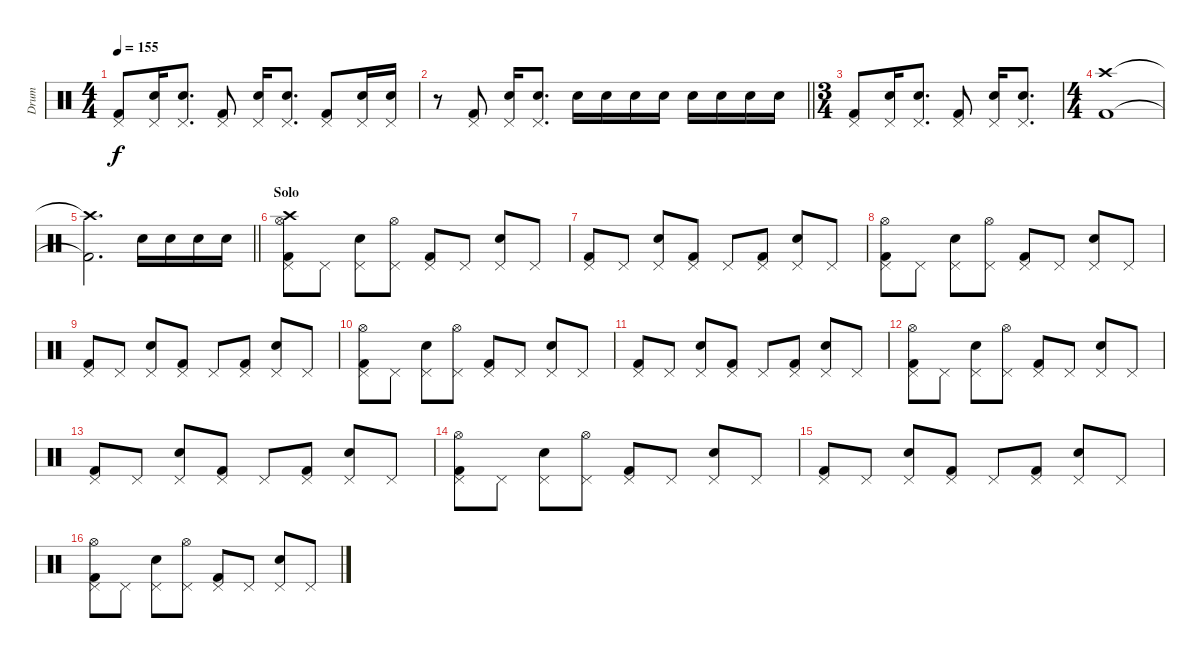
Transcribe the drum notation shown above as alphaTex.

\track ("Drum" "Drum") {instrument percussion}
\staff {score}
\articulation defaults
\ts (4 4)
\tempo 155
\clef neutral
\ks c
("Kick (hit) 2" "Pedal Hi-Hat (hit)").8{dy f} ("Electric Snare (hit)" "Pedal Hi-Hat (hit)").16 ("Electric Snare (hit)" "Pedal Hi-Hat (hit)").8{d} ("Kick (hit) 2" "Pedal Hi-Hat (hit)").8 ("Electric Snare (hit)" "Pedal Hi-Hat (hit)").16 ("Electric Snare (hit)" "Pedal Hi-Hat (hit)").8{d} ("Kick (hit) 2" "Pedal Hi-Hat (hit)").8 ("Electric Snare (hit)" "Pedal Hi-Hat (hit)").16 ("Electric Snare (hit)" "Pedal Hi-Hat (hit)").16 |
\barLineRight lightlight
r.8 ("Kick (hit) 2" "Pedal Hi-Hat (hit)").8 ("Electric Snare (hit)" "Pedal Hi-Hat (hit)").16 ("Electric Snare (hit)" "Pedal Hi-Hat (hit)").8{d} "Electric Snare (hit)".16 "Electric Snare (hit)".16 "Electric Snare (hit)".16 "Electric Snare (hit)".16 "Electric Snare (hit)".16 "Electric Snare (hit)".16 "Electric Snare (hit)".16 "Electric Snare (hit)".16 |
\ts (3 4)
("Kick (hit) 2" "Pedal Hi-Hat (hit)").8 ("Electric Snare (hit)" "Pedal Hi-Hat (hit)").16 ("Electric Snare (hit)" "Pedal Hi-Hat (hit)").8{d} ("Kick (hit) 2" "Pedal Hi-Hat (hit)").8 ("Electric Snare (hit)" "Pedal Hi-Hat (hit)").16 ("Electric Snare (hit)" "Pedal Hi-Hat (hit)").8{d} |
\ts (4 4)
("Crash high (hit)" "Kick (hit) 2").1 |
\barLineRight lightlight
("Crash high (hit)"{t} "Kick (hit) 2"{t}).2{d} "Electric Snare (hit)".16 "Electric Snare (hit)".16 "Electric Snare (hit)".16 "Electric Snare (hit)".16 |
\section ("" "Solo")
("Kick (hit) 2" "Pedal Hi-Hat (hit)" "Hi-Hat (open)" "Crash high (hit)").8 "Pedal Hi-Hat (hit)".8 ("Electric Snare (hit)" "Pedal Hi-Hat (hit)").8 ("Pedal Hi-Hat (hit)" "Hi-Hat (open)").8 ("Kick (hit) 2" "Pedal Hi-Hat (hit)").8 "Pedal Hi-Hat (hit)".8 ("Electric Snare (hit)" "Pedal Hi-Hat (hit)").8 "Pedal Hi-Hat (hit)".8 |
("Kick (hit) 2" "Pedal Hi-Hat (hit)").8 "Pedal Hi-Hat (hit)".8 ("Electric Snare (hit)" "Pedal Hi-Hat (hit)").8 ("Kick (hit) 2" "Pedal Hi-Hat (hit)").8 "Pedal Hi-Hat (hit)".8 ("Kick (hit) 2" "Pedal Hi-Hat (hit)").8 ("Electric Snare (hit)" "Pedal Hi-Hat (hit)").8 "Pedal Hi-Hat (hit)".8 |
("Kick (hit) 2" "Pedal Hi-Hat (hit)" "Hi-Hat (open)").8 "Pedal Hi-Hat (hit)".8 ("Electric Snare (hit)" "Pedal Hi-Hat (hit)").8 ("Pedal Hi-Hat (hit)" "Hi-Hat (open)").8 ("Kick (hit) 2" "Pedal Hi-Hat (hit)").8 "Pedal Hi-Hat (hit)".8 ("Electric Snare (hit)" "Pedal Hi-Hat (hit)").8 "Pedal Hi-Hat (hit)".8 |
("Kick (hit) 2" "Pedal Hi-Hat (hit)").8 "Pedal Hi-Hat (hit)".8 ("Electric Snare (hit)" "Pedal Hi-Hat (hit)").8 ("Kick (hit) 2" "Pedal Hi-Hat (hit)").8 "Pedal Hi-Hat (hit)".8 ("Kick (hit) 2" "Pedal Hi-Hat (hit)").8 ("Electric Snare (hit)" "Pedal Hi-Hat (hit)").8 "Pedal Hi-Hat (hit)".8 |
("Kick (hit) 2" "Pedal Hi-Hat (hit)" "Hi-Hat (open)").8 "Pedal Hi-Hat (hit)".8 ("Electric Snare (hit)" "Pedal Hi-Hat (hit)").8 ("Pedal Hi-Hat (hit)" "Hi-Hat (open)").8 ("Kick (hit) 2" "Pedal Hi-Hat (hit)").8 "Pedal Hi-Hat (hit)".8 ("Electric Snare (hit)" "Pedal Hi-Hat (hit)").8 "Pedal Hi-Hat (hit)".8 |
("Kick (hit) 2" "Pedal Hi-Hat (hit)").8 "Pedal Hi-Hat (hit)".8 ("Electric Snare (hit)" "Pedal Hi-Hat (hit)").8 ("Kick (hit) 2" "Pedal Hi-Hat (hit)").8 "Pedal Hi-Hat (hit)".8 ("Kick (hit) 2" "Pedal Hi-Hat (hit)").8 ("Electric Snare (hit)" "Pedal Hi-Hat (hit)").8 "Pedal Hi-Hat (hit)".8 |
("Kick (hit) 2" "Pedal Hi-Hat (hit)" "Hi-Hat (open)").8 "Pedal Hi-Hat (hit)".8 ("Electric Snare (hit)" "Pedal Hi-Hat (hit)").8 ("Pedal Hi-Hat (hit)" "Hi-Hat (open)").8 ("Kick (hit) 2" "Pedal Hi-Hat (hit)").8 "Pedal Hi-Hat (hit)".8 ("Electric Snare (hit)" "Pedal Hi-Hat (hit)").8 "Pedal Hi-Hat (hit)".8 |
("Kick (hit) 2" "Pedal Hi-Hat (hit)").8 "Pedal Hi-Hat (hit)".8 ("Electric Snare (hit)" "Pedal Hi-Hat (hit)").8 ("Kick (hit) 2" "Pedal Hi-Hat (hit)").8 "Pedal Hi-Hat (hit)".8 ("Kick (hit) 2" "Pedal Hi-Hat (hit)").8 ("Electric Snare (hit)" "Pedal Hi-Hat (hit)").8 "Pedal Hi-Hat (hit)".8 |
("Kick (hit) 2" "Pedal Hi-Hat (hit)" "Hi-Hat (open)").8 "Pedal Hi-Hat (hit)".8 ("Electric Snare (hit)" "Pedal Hi-Hat (hit)").8 ("Pedal Hi-Hat (hit)" "Hi-Hat (open)").8 ("Kick (hit) 2" "Pedal Hi-Hat (hit)").8 "Pedal Hi-Hat (hit)".8 ("Electric Snare (hit)" "Pedal Hi-Hat (hit)").8 "Pedal Hi-Hat (hit)".8 |
("Kick (hit) 2" "Pedal Hi-Hat (hit)").8 "Pedal Hi-Hat (hit)".8 ("Electric Snare (hit)" "Pedal Hi-Hat (hit)").8 ("Kick (hit) 2" "Pedal Hi-Hat (hit)").8 "Pedal Hi-Hat (hit)".8 ("Kick (hit) 2" "Pedal Hi-Hat (hit)").8 ("Electric Snare (hit)" "Pedal Hi-Hat (hit)").8 "Pedal Hi-Hat (hit)".8 |
("Kick (hit) 2" "Pedal Hi-Hat (hit)" "Hi-Hat (open)").8 "Pedal Hi-Hat (hit)".8 ("Electric Snare (hit)" "Pedal Hi-Hat (hit)").8 ("Pedal Hi-Hat (hit)" "Hi-Hat (open)").8 ("Kick (hit) 2" "Pedal Hi-Hat (hit)").8 "Pedal Hi-Hat (hit)".8 ("Electric Snare (hit)" "Pedal Hi-Hat (hit)").8 "Pedal Hi-Hat (hit)".8
